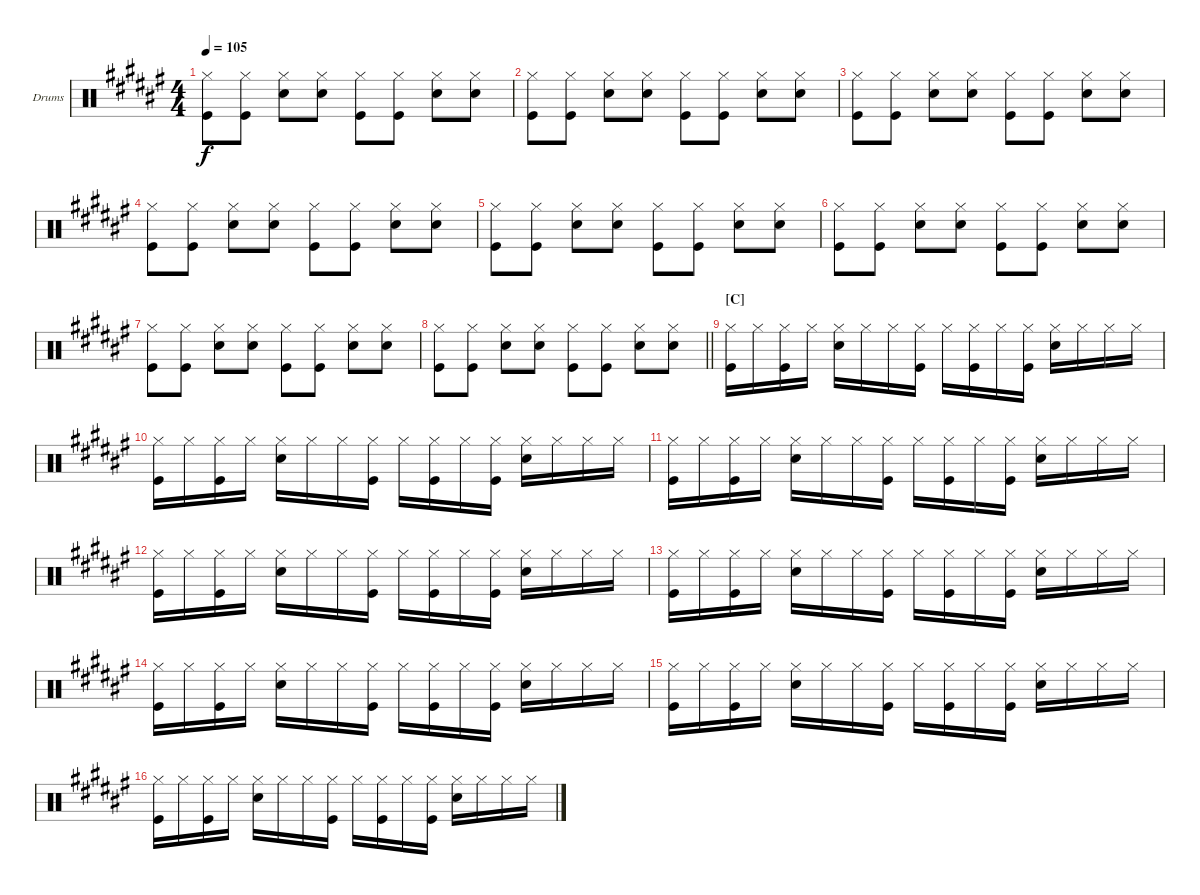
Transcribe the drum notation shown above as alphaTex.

\bracketExtendMode groupsimilarinstruments
\firstSystemTrackNameOrientation horizontal
\otherSystemsTrackNameOrientation horizontal
\track ("Fab Moretti" "Drums") {instrument percussion}
\staff {score}
\articulation defaults
\ts (4 4)
\tempo 105
\clef neutral
\ks f#
("Hi-Hat (closed)" "Kick (hit)").8{dy f} ("Hi-Hat (closed)" "Kick (hit)").8 ("Hi-Hat (closed)" "Snare (hit) 2").8 ("Hi-Hat (closed)" "Snare (hit) 2").8 ("Hi-Hat (closed)" "Kick (hit)").8 ("Hi-Hat (closed)" "Kick (hit)").8 ("Hi-Hat (closed)" "Snare (hit) 2").8 ("Hi-Hat (closed)" "Snare (hit) 2").8 |
("Hi-Hat (closed)" "Kick (hit)").8 ("Hi-Hat (closed)" "Kick (hit)").8 ("Hi-Hat (closed)" "Snare (hit) 2").8 ("Hi-Hat (closed)" "Snare (hit) 2").8 ("Hi-Hat (closed)" "Kick (hit)").8 ("Hi-Hat (closed)" "Kick (hit)").8 ("Hi-Hat (closed)" "Snare (hit) 2").8 ("Hi-Hat (closed)" "Snare (hit) 2").8 |
("Hi-Hat (closed)" "Kick (hit)").8 ("Hi-Hat (closed)" "Kick (hit)").8 ("Hi-Hat (closed)" "Snare (hit) 2").8 ("Hi-Hat (closed)" "Snare (hit) 2").8 ("Hi-Hat (closed)" "Kick (hit)").8 ("Hi-Hat (closed)" "Kick (hit)").8 ("Hi-Hat (closed)" "Snare (hit) 2").8 ("Hi-Hat (closed)" "Snare (hit) 2").8 |
("Hi-Hat (closed)" "Kick (hit)").8 ("Hi-Hat (closed)" "Kick (hit)").8 ("Hi-Hat (closed)" "Snare (hit) 2").8 ("Hi-Hat (closed)" "Snare (hit) 2").8 ("Hi-Hat (closed)" "Kick (hit)").8 ("Hi-Hat (closed)" "Kick (hit)").8 ("Hi-Hat (closed)" "Snare (hit) 2").8 ("Hi-Hat (closed)" "Snare (hit) 2").8 |
("Hi-Hat (closed)" "Kick (hit)").8 ("Hi-Hat (closed)" "Kick (hit)").8 ("Hi-Hat (closed)" "Snare (hit) 2").8 ("Hi-Hat (closed)" "Snare (hit) 2").8 ("Hi-Hat (closed)" "Kick (hit)").8 ("Hi-Hat (closed)" "Kick (hit)").8 ("Hi-Hat (closed)" "Snare (hit) 2").8 ("Hi-Hat (closed)" "Snare (hit) 2").8 |
("Hi-Hat (closed)" "Kick (hit)").8 ("Hi-Hat (closed)" "Kick (hit)").8 ("Hi-Hat (closed)" "Snare (hit) 2").8 ("Hi-Hat (closed)" "Snare (hit) 2").8 ("Hi-Hat (closed)" "Kick (hit)").8 ("Hi-Hat (closed)" "Kick (hit)").8 ("Hi-Hat (closed)" "Snare (hit) 2").8 ("Hi-Hat (closed)" "Snare (hit) 2").8 |
("Hi-Hat (closed)" "Kick (hit)").8 ("Hi-Hat (closed)" "Kick (hit)").8 ("Hi-Hat (closed)" "Snare (hit) 2").8 ("Hi-Hat (closed)" "Snare (hit) 2").8 ("Hi-Hat (closed)" "Kick (hit)").8 ("Hi-Hat (closed)" "Kick (hit)").8 ("Hi-Hat (closed)" "Snare (hit) 2").8 ("Hi-Hat (closed)" "Snare (hit) 2").8 |
\barLineRight lightlight
("Hi-Hat (closed)" "Kick (hit)").8 ("Hi-Hat (closed)" "Kick (hit)").8 ("Hi-Hat (closed)" "Snare (hit) 2").8 ("Hi-Hat (closed)" "Snare (hit) 2").8 ("Hi-Hat (closed)" "Kick (hit)").8 ("Hi-Hat (closed)" "Kick (hit)").8 ("Hi-Hat (closed)" "Snare (hit) 2").8 ("Hi-Hat (closed)" "Snare (hit) 2").8 |
\section ("C" "")
("Hi-Hat (closed)" "Kick (hit)").16 "Hi-Hat (closed)".16 ("Hi-Hat (closed)" "Kick (hit)").16 "Hi-Hat (closed)".16 ("Snare (hit) 2" "Hi-Hat (closed)").16 "Hi-Hat (closed)".16 "Hi-Hat (closed)".16 ("Hi-Hat (closed)" "Kick (hit)").16 "Hi-Hat (closed)".16 ("Hi-Hat (closed)" "Kick (hit)").16 "Hi-Hat (closed)".16 ("Hi-Hat (closed)" "Kick (hit)").16 ("Snare (hit) 2" "Hi-Hat (closed)").16 "Hi-Hat (closed)".16 "Hi-Hat (closed)".16 "Hi-Hat (closed)".16 |
("Hi-Hat (closed)" "Kick (hit)").16 "Hi-Hat (closed)".16 ("Hi-Hat (closed)" "Kick (hit)").16 "Hi-Hat (closed)".16 ("Snare (hit) 2" "Hi-Hat (closed)").16 "Hi-Hat (closed)".16 "Hi-Hat (closed)".16 ("Hi-Hat (closed)" "Kick (hit)").16 "Hi-Hat (closed)".16 ("Hi-Hat (closed)" "Kick (hit)").16 "Hi-Hat (closed)".16 ("Hi-Hat (closed)" "Kick (hit)").16 ("Snare (hit) 2" "Hi-Hat (closed)").16 "Hi-Hat (closed)".16 "Hi-Hat (closed)".16 "Hi-Hat (closed)".16 |
("Hi-Hat (closed)" "Kick (hit)").16 "Hi-Hat (closed)".16 ("Hi-Hat (closed)" "Kick (hit)").16 "Hi-Hat (closed)".16 ("Snare (hit) 2" "Hi-Hat (closed)").16 "Hi-Hat (closed)".16 "Hi-Hat (closed)".16 ("Hi-Hat (closed)" "Kick (hit)").16 "Hi-Hat (closed)".16 ("Hi-Hat (closed)" "Kick (hit)").16 "Hi-Hat (closed)".16 ("Hi-Hat (closed)" "Kick (hit)").16 ("Snare (hit) 2" "Hi-Hat (closed)").16 "Hi-Hat (closed)".16 "Hi-Hat (closed)".16 "Hi-Hat (closed)".16 |
("Hi-Hat (closed)" "Kick (hit)").16 "Hi-Hat (closed)".16 ("Hi-Hat (closed)" "Kick (hit)").16 "Hi-Hat (closed)".16 ("Snare (hit) 2" "Hi-Hat (closed)").16 "Hi-Hat (closed)".16 "Hi-Hat (closed)".16 ("Hi-Hat (closed)" "Kick (hit)").16 "Hi-Hat (closed)".16 ("Hi-Hat (closed)" "Kick (hit)").16 "Hi-Hat (closed)".16 ("Hi-Hat (closed)" "Kick (hit)").16 ("Snare (hit) 2" "Hi-Hat (closed)").16 "Hi-Hat (closed)".16 "Hi-Hat (closed)".16 "Hi-Hat (closed)".16 |
("Hi-Hat (closed)" "Kick (hit)").16 "Hi-Hat (closed)".16 ("Hi-Hat (closed)" "Kick (hit)").16 "Hi-Hat (closed)".16 ("Snare (hit) 2" "Hi-Hat (closed)").16 "Hi-Hat (closed)".16 "Hi-Hat (closed)".16 ("Hi-Hat (closed)" "Kick (hit)").16 "Hi-Hat (closed)".16 ("Hi-Hat (closed)" "Kick (hit)").16 "Hi-Hat (closed)".16 ("Hi-Hat (closed)" "Kick (hit)").16 ("Snare (hit) 2" "Hi-Hat (closed)").16 "Hi-Hat (closed)".16 "Hi-Hat (closed)".16 "Hi-Hat (closed)".16 |
("Hi-Hat (closed)" "Kick (hit)").16 "Hi-Hat (closed)".16 ("Hi-Hat (closed)" "Kick (hit)").16 "Hi-Hat (closed)".16 ("Snare (hit) 2" "Hi-Hat (closed)").16 "Hi-Hat (closed)".16 "Hi-Hat (closed)".16 ("Hi-Hat (closed)" "Kick (hit)").16 "Hi-Hat (closed)".16 ("Hi-Hat (closed)" "Kick (hit)").16 "Hi-Hat (closed)".16 ("Hi-Hat (closed)" "Kick (hit)").16 ("Snare (hit) 2" "Hi-Hat (closed)").16 "Hi-Hat (closed)".16 "Hi-Hat (closed)".16 "Hi-Hat (closed)".16 |
("Hi-Hat (closed)" "Kick (hit)").16 "Hi-Hat (closed)".16 ("Hi-Hat (closed)" "Kick (hit)").16 "Hi-Hat (closed)".16 ("Snare (hit) 2" "Hi-Hat (closed)").16 "Hi-Hat (closed)".16 "Hi-Hat (closed)".16 ("Hi-Hat (closed)" "Kick (hit)").16 "Hi-Hat (closed)".16 ("Hi-Hat (closed)" "Kick (hit)").16 "Hi-Hat (closed)".16 ("Hi-Hat (closed)" "Kick (hit)").16 ("Snare (hit) 2" "Hi-Hat (closed)").16 "Hi-Hat (closed)".16 "Hi-Hat (closed)".16 "Hi-Hat (closed)".16 |
("Hi-Hat (closed)" "Kick (hit)").16 "Hi-Hat (closed)".16 ("Hi-Hat (closed)" "Kick (hit)").16 "Hi-Hat (closed)".16 ("Snare (hit) 2" "Hi-Hat (closed)").16 "Hi-Hat (closed)".16 "Hi-Hat (closed)".16 ("Hi-Hat (closed)" "Kick (hit)").16 "Hi-Hat (closed)".16 ("Hi-Hat (closed)" "Kick (hit)").16 "Hi-Hat (closed)".16 ("Hi-Hat (closed)" "Kick (hit)").16 ("Snare (hit) 2" "Hi-Hat (closed)").16 "Hi-Hat (closed)".16 "Hi-Hat (closed)".16 "Hi-Hat (closed)".16
